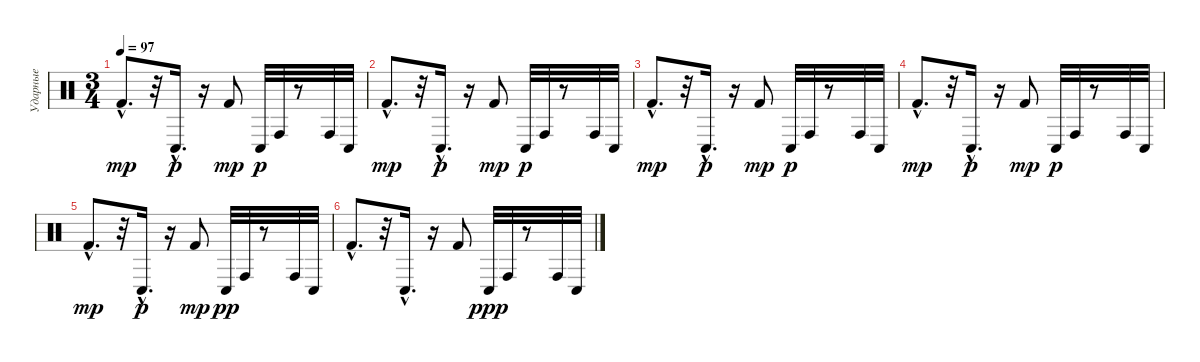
\track ("Ударные" "Ударные") {instrument percussion}
\staff {score}
\articulation defaults
\ts (3 4)
\tempo 97
\clef neutral
\ks c "Kick (hit) 2"{hac}.8{d dy mp}
r.32 "Conga low (hit)"{hac}.16{d dy p} r.16 "Kick (hit) 2".8{dy mp} "Conga low (hit)".32{dy p} "Conga high (hit)".32 r.8 "Conga high (hit)".32 "Conga low (hit)".32 |
"Kick (hit) 2"{hac}.8{d dy mp} r.32 "Conga low (hit)"{hac}.16{d dy p} r.16 "Kick (hit) 2".8{dy mp} "Conga low (hit)".32{dy p} "Conga high (hit)".32 r.8 "Conga high (hit)".32 "Conga low (hit)".32 |
"Kick (hit) 2"{hac}.8{d dy mp} r.32 "Conga low (hit)"{hac}.16{d dy p} r.16 "Kick (hit) 2".8{dy mp} "Conga low (hit)".32{dy p} "Conga high (hit)".32 r.8 "Conga high (hit)".32 "Conga low (hit)".32 |
"Kick (hit) 2"{hac}.8{d dy mp} r.32 "Conga low (hit)"{hac}.16{d dy p} r.16 "Kick (hit) 2".8{dy mp} "Conga low (hit)".32{dy p} "Conga high (hit)".32 r.8 "Conga high (hit)".32 "Conga low (hit)".32 |
"Kick (hit) 2"{hac}.8{d dy mp} r.32 "Conga low (hit)"{hac}.16{d dy p} r.16 "Kick (hit) 2".8{dy mp} "Conga low (hit)".32{dy pp} "Conga high (hit)".32 r.8 "Conga high (hit)".32 "Conga low (hit)".32 |
"Kick (hit) 2"{hac}.8{d} r.32 "Conga low (hit)"{hac}.16{d} r.16 "Kick (hit) 2".8 "Conga low (hit)".32{dy ppp} "Conga high (hit)".32 r.8 "Conga high (hit)".32 "Conga low (hit)".32
